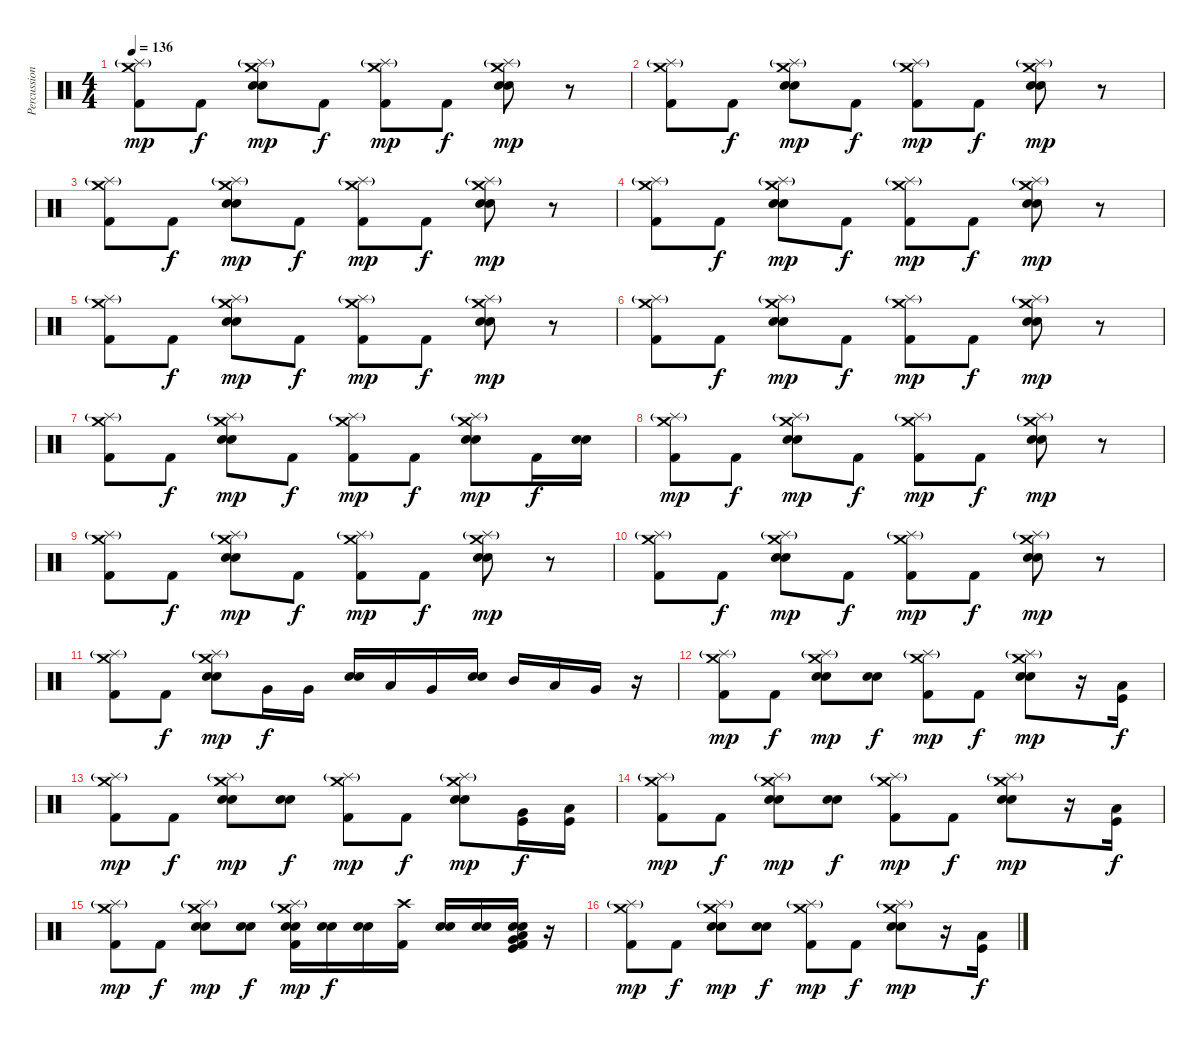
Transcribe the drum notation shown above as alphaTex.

\track ("Percussion" "Percussion") {instrument percussion}
\staff {score}
\articulation defaults
\ts (4 4)
\tempo 136
\clef neutral
\ks c
("Splash (hit)"{g} "Crash medium (hit)" "Kick (hit) 2").8{dy mp} "Kick (hit) 2".8{dy f} ("Splash (hit)"{g} "Crash medium (hit)" "Snare (hit) 2" "Electric Snare (hit)").8{dy mp} "Kick (hit) 2".8{dy f} ("Splash (hit)"{g} "Crash medium (hit)" "Kick (hit) 2").8{dy mp} "Kick (hit) 2".8{dy f} ("Splash (hit)"{g} "Crash medium (hit)" "Snare (hit) 2" "Electric Snare (hit)").8{dy mp} r.8 |
("Splash (hit)"{g} "Crash medium (hit)" "Kick (hit) 2").8 "Kick (hit) 2".8{dy f} ("Splash (hit)"{g} "Crash medium (hit)" "Snare (hit) 2" "Electric Snare (hit)").8{dy mp} "Kick (hit) 2".8{dy f} ("Splash (hit)"{g} "Crash medium (hit)" "Kick (hit) 2").8{dy mp} "Kick (hit) 2".8{dy f} ("Splash (hit)"{g} "Crash medium (hit)" "Snare (hit) 2" "Electric Snare (hit)").8{dy mp} r.8 |
("Splash (hit)"{g} "Crash medium (hit)" "Kick (hit) 2").8 "Kick (hit) 2".8{dy f} ("Splash (hit)"{g} "Crash medium (hit)" "Snare (hit) 2" "Electric Snare (hit)").8{dy mp} "Kick (hit) 2".8{dy f} ("Splash (hit)"{g} "Crash medium (hit)" "Kick (hit) 2").8{dy mp} "Kick (hit) 2".8{dy f} ("Splash (hit)"{g} "Crash medium (hit)" "Snare (hit) 2" "Electric Snare (hit)").8{dy mp} r.8 |
("Splash (hit)"{g} "Crash medium (hit)" "Kick (hit) 2").8 "Kick (hit) 2".8{dy f} ("Splash (hit)"{g} "Crash medium (hit)" "Snare (hit) 2" "Electric Snare (hit)").8{dy mp} "Kick (hit) 2".8{dy f} ("Splash (hit)"{g} "Crash medium (hit)" "Kick (hit) 2").8{dy mp} "Kick (hit) 2".8{dy f} ("Splash (hit)"{g} "Crash medium (hit)" "Snare (hit) 2" "Electric Snare (hit)").8{dy mp} r.8 |
("Splash (hit)"{g} "Crash medium (hit)" "Kick (hit) 2").8 "Kick (hit) 2".8{dy f} ("Splash (hit)"{g} "Crash medium (hit)" "Snare (hit) 2" "Electric Snare (hit)").8{dy mp} "Kick (hit) 2".8{dy f} ("Splash (hit)"{g} "Crash medium (hit)" "Kick (hit) 2").8{dy mp} "Kick (hit) 2".8{dy f} ("Splash (hit)"{g} "Crash medium (hit)" "Snare (hit) 2" "Electric Snare (hit)").8{dy mp} r.8 |
("Splash (hit)"{g} "Crash medium (hit)" "Kick (hit) 2").8 "Kick (hit) 2".8{dy f} ("Splash (hit)"{g} "Crash medium (hit)" "Snare (hit) 2" "Electric Snare (hit)").8{dy mp} "Kick (hit) 2".8{dy f} ("Splash (hit)"{g} "Crash medium (hit)" "Kick (hit) 2").8{dy mp} "Kick (hit) 2".8{dy f} ("Splash (hit)"{g} "Crash medium (hit)" "Snare (hit) 2" "Electric Snare (hit)").8{dy mp} r.8 |
("Splash (hit)"{g} "Crash medium (hit)" "Kick (hit) 2").8 "Kick (hit) 2".8{dy f} ("Splash (hit)"{g} "Crash medium (hit)" "Snare (hit) 2" "Electric Snare (hit)").8{dy mp} "Kick (hit) 2".8{dy f} ("Splash (hit)"{g} "Crash medium (hit)" "Kick (hit) 2").8{dy mp} "Kick (hit) 2".8{dy f} ("Splash (hit)"{g} "Crash medium (hit)" "Snare (hit) 2" "Electric Snare (hit)").8{dy mp} "Kick (hit) 2".16{dy f} ("Snare (hit) 2" "Electric Snare (hit)").16 |
("Splash (hit)"{g} "Crash medium (hit)" "Kick (hit) 2").8{dy mp} "Kick (hit) 2".8{dy f} ("Splash (hit)"{g} "Crash medium (hit)" "Snare (hit) 2" "Electric Snare (hit)").8{dy mp} "Kick (hit) 2".8{dy f} ("Splash (hit)"{g} "Crash medium (hit)" "Kick (hit) 2").8{dy mp} "Kick (hit) 2".8{dy f} ("Splash (hit)"{g} "Crash medium (hit)" "Snare (hit) 2" "Electric Snare (hit)").8{dy mp} r.8 |
("Splash (hit)"{g} "Crash medium (hit)" "Kick (hit) 2").8 "Kick (hit) 2".8{dy f} ("Splash (hit)"{g} "Crash medium (hit)" "Snare (hit) 2" "Electric Snare (hit)").8{dy mp} "Kick (hit) 2".8{dy f} ("Splash (hit)"{g} "Crash medium (hit)" "Kick (hit) 2").8{dy mp} "Kick (hit) 2".8{dy f} ("Splash (hit)"{g} "Crash medium (hit)" "Snare (hit) 2" "Electric Snare (hit)").8{dy mp} r.8 |
("Splash (hit)"{g} "Crash medium (hit)" "Kick (hit) 2").8 "Kick (hit) 2".8{dy f} ("Splash (hit)"{g} "Crash medium (hit)" "Snare (hit) 2" "Electric Snare (hit)").8{dy mp} "Kick (hit) 2".8{dy f} ("Splash (hit)"{g} "Crash medium (hit)" "Kick (hit) 2").8{dy mp} "Kick (hit) 2".8{dy f} ("Splash (hit)"{g} "Crash medium (hit)" "Snare (hit) 2" "Electric Snare (hit)").8{dy mp} r.8 |
("Splash (hit)"{g} "Crash medium (hit)" "Kick (hit) 2").8 "Kick (hit) 2".8{dy f} ("Splash (hit)"{g} "Crash medium (hit)" "Snare (hit) 2" "Electric Snare (hit)").8{dy mp} "Very Low Tom (hit)".16{dy f} "Very Low Tom (hit)".16 ("Snare (hit) 2" "Electric Snare (hit)").16 "Low Tom (hit)".16 "Very Low Tom (hit)".16 ("Electric Snare (hit)" "Snare (hit) 2").16 "Mid Tom (hit)".16 "Low Tom (hit)".16 "Very Low Tom (hit)".16 r.16 |
("Splash (hit)"{g} "Crash medium (hit)" "Kick (hit) 2").8{dy mp} "Kick (hit) 2".8{dy f} ("Splash (hit)"{g} "Crash medium (hit)" "Snare (hit) 2" "Electric Snare (hit)").8{dy mp} ("Snare (hit) 2" "Electric Snare (hit)").8{dy f} ("Splash (hit)"{g} "Crash medium (hit)" "Kick (hit) 2").8{dy mp} "Kick (hit) 2".8{dy f} ("Splash (hit)"{g} "Crash medium (hit)" "Snare (hit) 2" "Electric Snare (hit)").8{dy mp} r.16 ("Low Floor Tom (hit)" "Kick (hit)").16{dy f} |
("Splash (hit)"{g} "Crash medium (hit)" "Kick (hit) 2").8{dy mp} "Kick (hit) 2".8{dy f} ("Splash (hit)"{g} "Crash medium (hit)" "Snare (hit) 2" "Electric Snare (hit)").8{dy mp} ("Snare (hit) 2" "Electric Snare (hit)").8{dy f} ("Splash (hit)"{g} "Crash medium (hit)" "Kick (hit) 2").8{dy mp} "Kick (hit) 2".8{dy f} ("Splash (hit)"{g} "Crash medium (hit)" "Snare (hit) 2" "Electric Snare (hit)").8{dy mp} ("Very Low Tom (hit)" "Kick (hit)").16{dy f} ("Low Floor Tom (hit)" "Kick (hit)").16 |
("Splash (hit)"{g} "Crash medium (hit)" "Kick (hit) 2").8{dy mp} "Kick (hit) 2".8{dy f} ("Splash (hit)"{g} "Crash medium (hit)" "Snare (hit) 2" "Electric Snare (hit)").8{dy mp} ("Snare (hit) 2" "Electric Snare (hit)").8{dy f} ("Splash (hit)"{g} "Crash medium (hit)" "Kick (hit) 2").8{dy mp} "Kick (hit) 2".8{dy f} ("Splash (hit)"{g} "Crash medium (hit)" "Snare (hit) 2" "Electric Snare (hit)").8{dy mp} r.16 ("Low Floor Tom (hit)" "Kick (hit)").16{dy f} |
("Splash (hit)"{g} "Crash medium (hit)" "Kick (hit) 2").8{dy mp} "Kick (hit) 2".8{dy f} ("Splash (hit)"{g} "Crash medium (hit)" "Snare (hit) 2" "Electric Snare (hit)").8{dy mp} ("Snare (hit) 2" "Electric Snare (hit)").8{dy f} ("Splash (hit)"{g} "Crash medium (hit)" "Snare (hit) 2" "Electric Snare (hit)" "Kick (hit) 2").16{dy mp} ("Snare (hit) 2" "Electric Snare (hit)").16{dy f} ("Snare (hit) 2" "Electric Snare (hit)").16 ("Crash high (hit)" "Kick (hit) 2").16 ("Snare (hit) 2" "Electric Snare (hit)").16 ("Snare (hit) 2" "Electric Snare (hit)").16 ("Kick (hit)" "Snare (hit) 2" "Electric Snare (hit)" "Low Floor Tom (hit)" "Very Low Tom (hit)" "Kick (hit) 2").16 r.16 |
("Splash (hit)"{g} "Crash medium (hit)" "Kick (hit) 2").8{dy mp} "Kick (hit) 2".8{dy f} ("Splash (hit)"{g} "Crash medium (hit)" "Snare (hit) 2" "Electric Snare (hit)").8{dy mp} ("Snare (hit) 2" "Electric Snare (hit)").8{dy f} ("Splash (hit)"{g} "Crash medium (hit)" "Kick (hit) 2").8{dy mp} "Kick (hit) 2".8{dy f} ("Splash (hit)"{g} "Crash medium (hit)" "Snare (hit) 2" "Electric Snare (hit)").8{dy mp} r.16 ("Low Floor Tom (hit)" "Kick (hit)").16{dy f}
